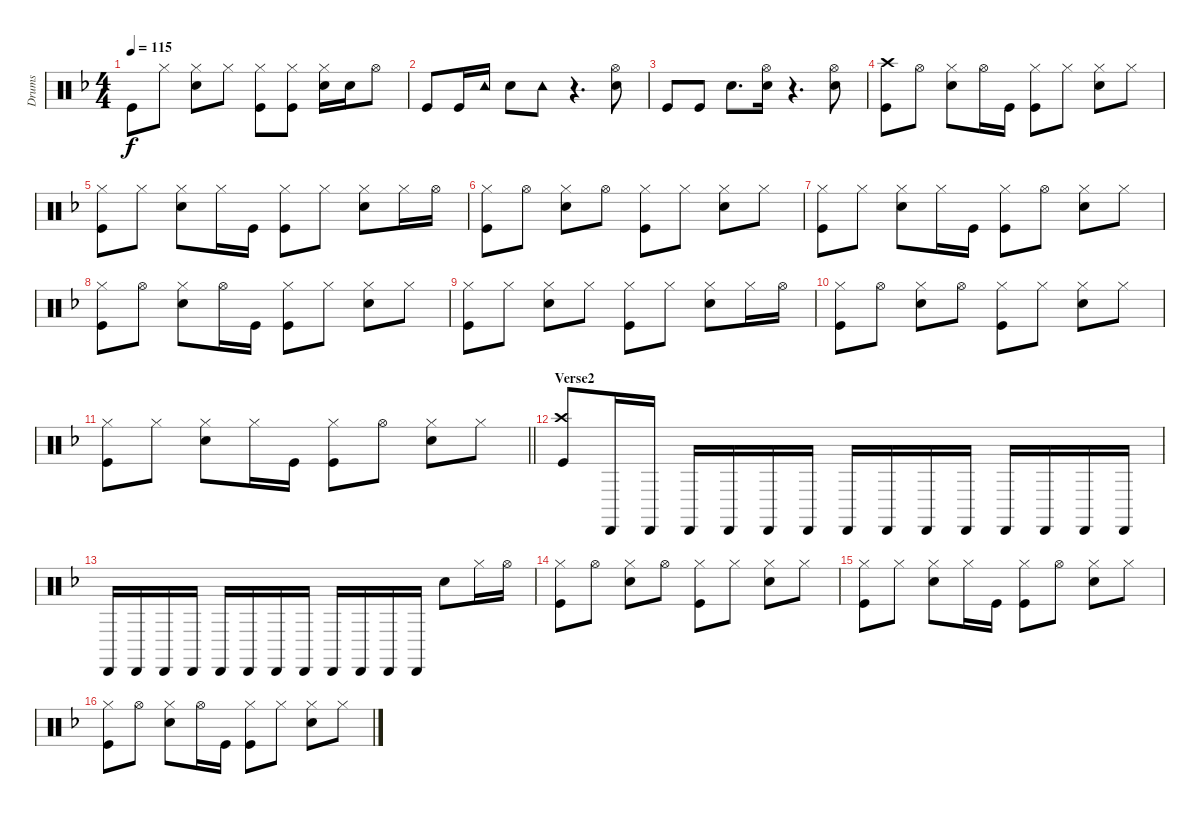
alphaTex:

\track ("Drums" "Drums") {instrument percussion}
\staff {score}
\articulation defaults
\ts (4 4)
\tempo 115
\clef neutral
\ks f "Kick (hit)".8{dy f} "Hi-Hat (closed)".8
("Hi-Hat (closed)" "Snare (hit) 2").8 "Hi-Hat (closed)".8 ("Hi-Hat (closed)" "Kick (hit)").8 ("Hi-Hat (closed)" "Kick (hit)").8 ("Hi-Hat (closed)" "Snare (hit) 2").16 "Snare (hit) 2".16 "Hi-Hat (open)".8 |
"Kick (hit)".8 "Kick (hit)".16 "Tambourine (hit)".16 "Snare (hit) 2".8 "Tambourine (hit)".8 r.4{d} ("Snare (hit) 2" "Hi-Hat (open)").8 |
"Kick (hit)".8 "Kick (hit)".8 "Snare (hit) 2".8{d} ("Snare (hit) 2" "Hi-Hat (open)").16 r.4{d} ("Snare (hit) 2" "Hi-Hat (open)").8 |
("Crash high (hit)" "Kick (hit)").8 "Hi-Hat (open)".8 ("Hi-Hat (closed)" "Snare (hit) 2").8 "Hi-Hat (open)".16 "Kick (hit)".16 ("Hi-Hat (closed)" "Kick (hit)").8 "Hi-Hat (closed)".8 ("Hi-Hat (closed)" "Snare (hit) 2").8 "Hi-Hat (closed)".8 |
("Hi-Hat (closed)" "Kick (hit)").8 "Hi-Hat (closed)".8 ("Hi-Hat (closed)" "Snare (hit) 2").8 "Hi-Hat (closed)".16 "Kick (hit)".16 ("Hi-Hat (closed)" "Kick (hit)").8 "Hi-Hat (closed)".8 ("Hi-Hat (closed)" "Snare (hit) 2").8 "Hi-Hat (closed)".16 "Hi-Hat (open)".16 |
("Hi-Hat (closed)" "Kick (hit)").8 "Hi-Hat (open)".8 ("Hi-Hat (closed)" "Snare (hit) 2").8 "Hi-Hat (open)".8 ("Hi-Hat (closed)" "Kick (hit)").8 "Hi-Hat (closed)".8 ("Hi-Hat (closed)" "Snare (hit) 2").8 "Hi-Hat (closed)".8 |
("Hi-Hat (closed)" "Kick (hit)").8 "Hi-Hat (closed)".8 ("Hi-Hat (closed)" "Snare (hit) 2").8 "Hi-Hat (closed)".16 "Kick (hit)".16 ("Hi-Hat (closed)" "Kick (hit)").8 "Hi-Hat (open)".8 ("Hi-Hat (closed)" "Snare (hit) 2").8 "Hi-Hat (closed)".8 |
("Hi-Hat (closed)" "Kick (hit)").8 "Hi-Hat (open)".8 ("Hi-Hat (closed)" "Snare (hit) 2").8 "Hi-Hat (open)".16 "Kick (hit)".16 ("Hi-Hat (closed)" "Kick (hit)").8 "Hi-Hat (closed)".8 ("Hi-Hat (closed)" "Snare (hit) 2").8 "Hi-Hat (closed)".8 |
("Hi-Hat (closed)" "Kick (hit)").8 "Hi-Hat (closed)".8 ("Hi-Hat (closed)" "Snare (hit) 2").8 "Hi-Hat (closed)".8 ("Hi-Hat (closed)" "Kick (hit)").8 "Hi-Hat (closed)".8 ("Hi-Hat (closed)" "Snare (hit) 2").8 "Hi-Hat (closed)".16 "Hi-Hat (open)".16 |
("Hi-Hat (closed)" "Kick (hit)").8 "Hi-Hat (open)".8 ("Hi-Hat (closed)" "Snare (hit) 2").8 "Hi-Hat (open)".8 ("Hi-Hat (closed)" "Kick (hit)").8 "Hi-Hat (closed)".8 ("Hi-Hat (closed)" "Snare (hit) 2").8 "Hi-Hat (closed)".8 |
\barLineRight lightlight
("Hi-Hat (closed)" "Kick (hit)").8 "Hi-Hat (closed)".8 ("Hi-Hat (closed)" "Snare (hit) 2").8 "Hi-Hat (closed)".16 "Kick (hit)".16 ("Hi-Hat (closed)" "Kick (hit)").8 "Hi-Hat (open)".8 ("Hi-Hat (closed)" "Snare (hit) 2").8 "Hi-Hat (closed)".8 |
\section ("" "Verse2")
("Crash high (hit)" "Kick (hit)").8 "Cabasa (hit)".16 "Cabasa (hit)".16 "Cabasa (hit)".16 "Cabasa (hit)".16 "Cabasa (hit)".16 "Cabasa (hit)".16 "Cabasa (hit)".16 "Cabasa (hit)".16 "Cabasa (hit)".16 "Cabasa (hit)".16 "Cabasa (hit)".16 "Cabasa (hit)".16 "Cabasa (hit)".16 "Cabasa (hit)".16 |
"Cabasa (hit)".16 "Cabasa (hit)".16 "Cabasa (hit)".16 "Cabasa (hit)".16 "Cabasa (hit)".16 "Cabasa (hit)".16 "Cabasa (hit)".16 "Cabasa (hit)".16 "Cabasa (hit)".16 "Cabasa (hit)".16 "Cabasa (hit)".16 "Cabasa (hit)".16 "Snare (hit) 2".8 "Hi-Hat (closed)".16 "Hi-Hat (open)".16 |
("Hi-Hat (closed)" "Kick (hit)").8 "Hi-Hat (open)".8 ("Hi-Hat (closed)" "Snare (hit) 2").8 "Hi-Hat (open)".8 ("Hi-Hat (closed)" "Kick (hit)").8 "Hi-Hat (closed)".8 ("Hi-Hat (closed)" "Snare (hit) 2").8 "Hi-Hat (closed)".8 |
("Hi-Hat (closed)" "Kick (hit)").8 "Hi-Hat (closed)".8 ("Hi-Hat (closed)" "Snare (hit) 2").8 "Hi-Hat (closed)".16 "Kick (hit)".16 ("Hi-Hat (closed)" "Kick (hit)").8 "Hi-Hat (open)".8 ("Hi-Hat (closed)" "Snare (hit) 2").8 "Hi-Hat (closed)".8 |
("Hi-Hat (closed)" "Kick (hit)").8 "Hi-Hat (open)".8 ("Hi-Hat (closed)" "Snare (hit) 2").8 "Hi-Hat (open)".16 "Kick (hit)".16 ("Hi-Hat (closed)" "Kick (hit)").8 "Hi-Hat (closed)".8 ("Hi-Hat (closed)" "Snare (hit) 2").8 "Hi-Hat (closed)".8
